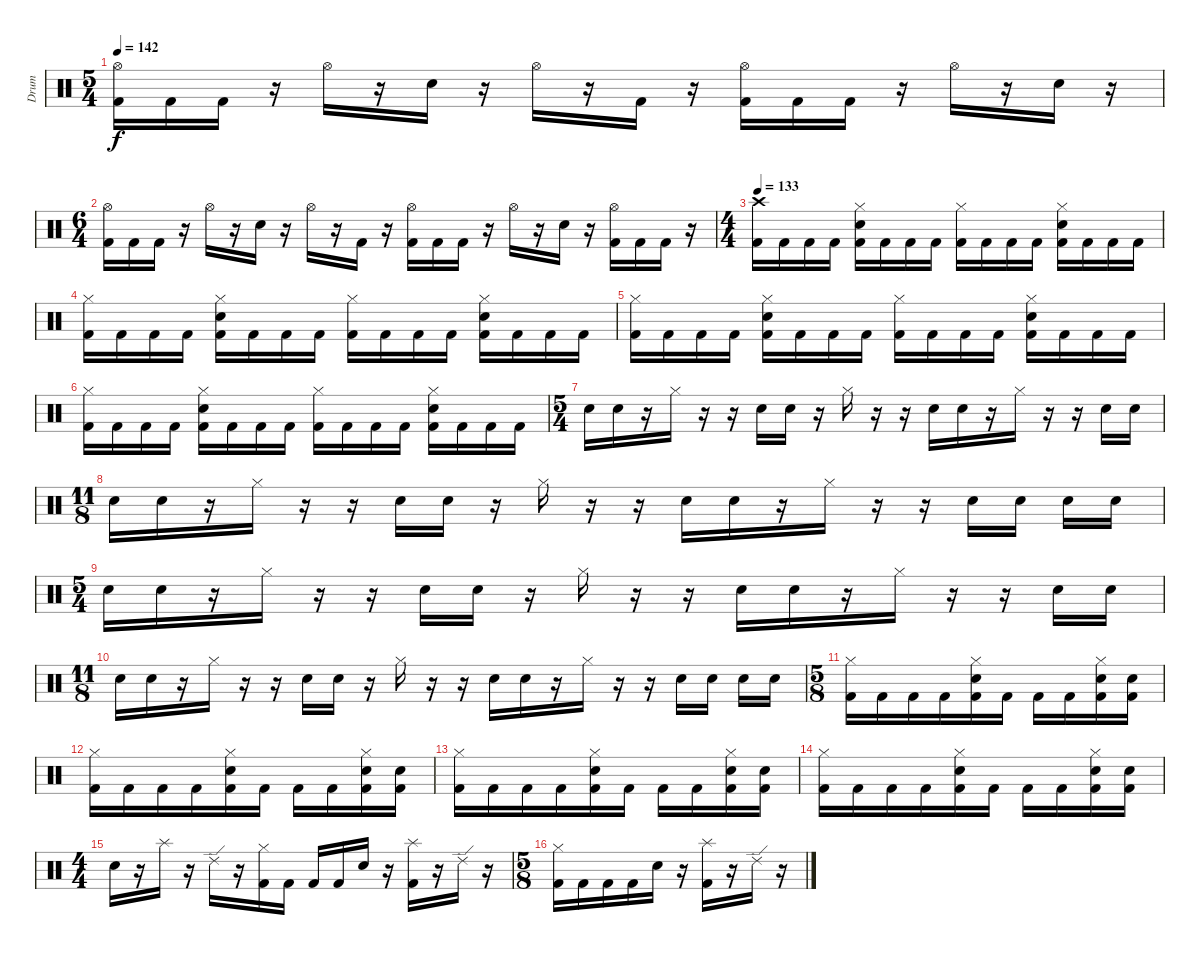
\track ("Drum" "Drum") {instrument percussion}
\staff {score}
\articulation defaults
\ts (5 4)
\tempo 142
\clef neutral
\ks c
("Hi-Hat (open)" "Kick (hit) 2").16{dy f} "Kick (hit) 2".16 "Kick (hit) 2".16 r.16 "Hi-Hat (open)".16 r.16 "Snare (hit) 2".16 r.16 "Hi-Hat (open)".16 r.16 "Kick (hit) 2".16 r.16 ("Hi-Hat (open)" "Kick (hit) 2").16 "Kick (hit) 2".16 "Kick (hit) 2".16 r.16 "Hi-Hat (open)".16 r.16 "Snare (hit) 2".16 r.16 |
\ts (6 4)
("Hi-Hat (open)" "Kick (hit) 2").16 "Kick (hit) 2".16 "Kick (hit) 2".16 r.16 "Hi-Hat (open)".16 r.16 "Snare (hit) 2".16 r.16 "Hi-Hat (open)".16 r.16 "Kick (hit) 2".16 r.16 ("Hi-Hat (open)" "Kick (hit) 2").16 "Kick (hit) 2".16 "Kick (hit) 2".16 r.16 "Hi-Hat (open)".16 r.16 "Snare (hit) 2".16 r.16 ("Hi-Hat (open)" "Kick (hit) 2").16 "Kick (hit) 2".16 "Kick (hit) 2".16 r.16 |
\ts (4 4)
\tempo 133
("Crash high (hit)" "Kick (hit) 2").16 "Kick (hit) 2".16 "Kick (hit) 2".16 "Kick (hit) 2".16 ("Hi-Hat (closed)" "Snare (hit) 2" "Kick (hit) 2").16 "Kick (hit) 2".16 "Kick (hit) 2".16 "Kick (hit) 2".16 ("Hi-Hat (closed)" "Kick (hit) 2").16 "Kick (hit) 2".16 "Kick (hit) 2".16 "Kick (hit) 2".16 ("Hi-Hat (closed)" "Snare (hit) 2" "Kick (hit) 2").16 "Kick (hit) 2".16 "Kick (hit) 2".16 "Kick (hit) 2".16 |
("Hi-Hat (closed)" "Kick (hit) 2").16 "Kick (hit) 2".16 "Kick (hit) 2".16 "Kick (hit) 2".16 ("Hi-Hat (closed)" "Snare (hit) 2" "Kick (hit) 2").16 "Kick (hit) 2".16 "Kick (hit) 2".16 "Kick (hit) 2".16 ("Hi-Hat (closed)" "Kick (hit) 2").16 "Kick (hit) 2".16 "Kick (hit) 2".16 "Kick (hit) 2".16 ("Hi-Hat (closed)" "Snare (hit) 2" "Kick (hit) 2").16 "Kick (hit) 2".16 "Kick (hit) 2".16 "Kick (hit) 2".16 |
("Hi-Hat (closed)" "Kick (hit) 2").16 "Kick (hit) 2".16 "Kick (hit) 2".16 "Kick (hit) 2".16 ("Hi-Hat (closed)" "Snare (hit) 2" "Kick (hit) 2").16 "Kick (hit) 2".16 "Kick (hit) 2".16 "Kick (hit) 2".16 ("Hi-Hat (closed)" "Kick (hit) 2").16 "Kick (hit) 2".16 "Kick (hit) 2".16 "Kick (hit) 2".16 ("Hi-Hat (closed)" "Snare (hit) 2" "Kick (hit) 2").16 "Kick (hit) 2".16 "Kick (hit) 2".16 "Kick (hit) 2".16 |
("Hi-Hat (closed)" "Kick (hit) 2").16 "Kick (hit) 2".16 "Kick (hit) 2".16 "Kick (hit) 2".16 ("Hi-Hat (closed)" "Snare (hit) 2" "Kick (hit) 2").16 "Kick (hit) 2".16 "Kick (hit) 2".16 "Kick (hit) 2".16 ("Hi-Hat (closed)" "Kick (hit) 2").16 "Kick (hit) 2".16 "Kick (hit) 2".16 "Kick (hit) 2".16 ("Hi-Hat (closed)" "Snare (hit) 2" "Kick (hit) 2").16 "Kick (hit) 2".16 "Kick (hit) 2".16 "Kick (hit) 2".16 |
\ts (5 4)
"Snare (hit) 2".16 "Snare (hit) 2".16 r.16 "Hi-Hat (closed)".16 r.16 r.16 "Snare (hit) 2".16 "Snare (hit) 2".16 r.16 "Hi-Hat (closed)".16 r.16 r.16 "Snare (hit) 2".16 "Snare (hit) 2".16 r.16 "Hi-Hat (closed)".16 r.16 r.16 "Snare (hit) 2".16 "Snare (hit) 2".16 |
\ts (11 8)
"Snare (hit) 2".16 "Snare (hit) 2".16 r.16 "Hi-Hat (closed)".16 r.16 r.16 "Snare (hit) 2".16 "Snare (hit) 2".16 r.16 "Hi-Hat (closed)".16 r.16 r.16 "Snare (hit) 2".16 "Snare (hit) 2".16 r.16 "Hi-Hat (closed)".16 r.16 r.16 "Snare (hit) 2".16 "Snare (hit) 2".16 "Snare (hit) 2".16 "Snare (hit) 2".16 |
\ts (5 4)
"Snare (hit) 2".16 "Snare (hit) 2".16 r.16 "Hi-Hat (closed)".16 r.16 r.16 "Snare (hit) 2".16 "Snare (hit) 2".16 r.16 "Hi-Hat (closed)".16 r.16 r.16 "Snare (hit) 2".16 "Snare (hit) 2".16 r.16 "Hi-Hat (closed)".16 r.16 r.16 "Snare (hit) 2".16 "Snare (hit) 2".16 |
\ts (11 8)
"Snare (hit) 2".16 "Snare (hit) 2".16 r.16 "Hi-Hat (closed)".16 r.16 r.16 "Snare (hit) 2".16 "Snare (hit) 2".16 r.16 "Hi-Hat (closed)".16 r.16 r.16 "Snare (hit) 2".16 "Snare (hit) 2".16 r.16 "Hi-Hat (closed)".16 r.16 r.16 "Snare (hit) 2".16 "Snare (hit) 2".16 "Snare (hit) 2".16 "Snare (hit) 2".16 |
\ts (5 8)
("Hi-Hat (closed)" "Kick (hit) 2").16 "Kick (hit) 2".16 "Kick (hit) 2".16 "Kick (hit) 2".16 ("Hi-Hat (closed)" "Snare (hit) 2" "Kick (hit) 2").16 "Kick (hit) 2".16 "Kick (hit) 2".16 "Kick (hit) 2".16 ("Hi-Hat (closed)" "Snare (hit) 2" "Kick (hit) 2").16 ("Snare (hit) 2" "Kick (hit) 2").16 |
("Hi-Hat (closed)" "Kick (hit) 2").16 "Kick (hit) 2".16 "Kick (hit) 2".16 "Kick (hit) 2".16 ("Hi-Hat (closed)" "Snare (hit) 2" "Kick (hit) 2").16 "Kick (hit) 2".16 "Kick (hit) 2".16 "Kick (hit) 2".16 ("Hi-Hat (closed)" "Snare (hit) 2" "Kick (hit) 2").16 ("Snare (hit) 2" "Kick (hit) 2").16 |
("Hi-Hat (closed)" "Kick (hit) 2").16 "Kick (hit) 2".16 "Kick (hit) 2".16 "Kick (hit) 2".16 ("Hi-Hat (closed)" "Snare (hit) 2" "Kick (hit) 2").16 "Kick (hit) 2".16 "Kick (hit) 2".16 "Kick (hit) 2".16 ("Hi-Hat (closed)" "Snare (hit) 2" "Kick (hit) 2").16 ("Snare (hit) 2" "Kick (hit) 2").16 |
("Hi-Hat (closed)" "Kick (hit) 2").16 "Kick (hit) 2".16 "Kick (hit) 2".16 "Kick (hit) 2".16 ("Hi-Hat (closed)" "Snare (hit) 2" "Kick (hit) 2").16 "Kick (hit) 2".16 "Kick (hit) 2".16 "Kick (hit) 2".16 ("Hi-Hat (closed)" "Snare (hit) 2" "Kick (hit) 2").16 ("Snare (hit) 2" "Kick (hit) 2").16 |
\ts (4 4)
"Snare (hit) 2".16 r.16 "Splash (hit)".16 r.16 "Ride (edge) 2".16 r.16 ("Hi-Hat (closed)" "Kick (hit) 2").16 "Kick (hit) 2".16 "Kick (hit) 2".16 "Kick (hit) 2".16 "Snare (hit) 2".16 r.16 ("Splash (hit)" "Kick (hit) 2").16 r.16 "Ride (edge) 2".16 r.16 |
\ts (5 8)
("Hi-Hat (closed)" "Kick (hit) 2").16 "Kick (hit) 2".16 "Kick (hit) 2".16 "Kick (hit) 2".16 "Snare (hit) 2".16 r.16 ("Splash (hit)" "Kick (hit) 2").16 r.16 "Ride (edge) 2".16 r.16
